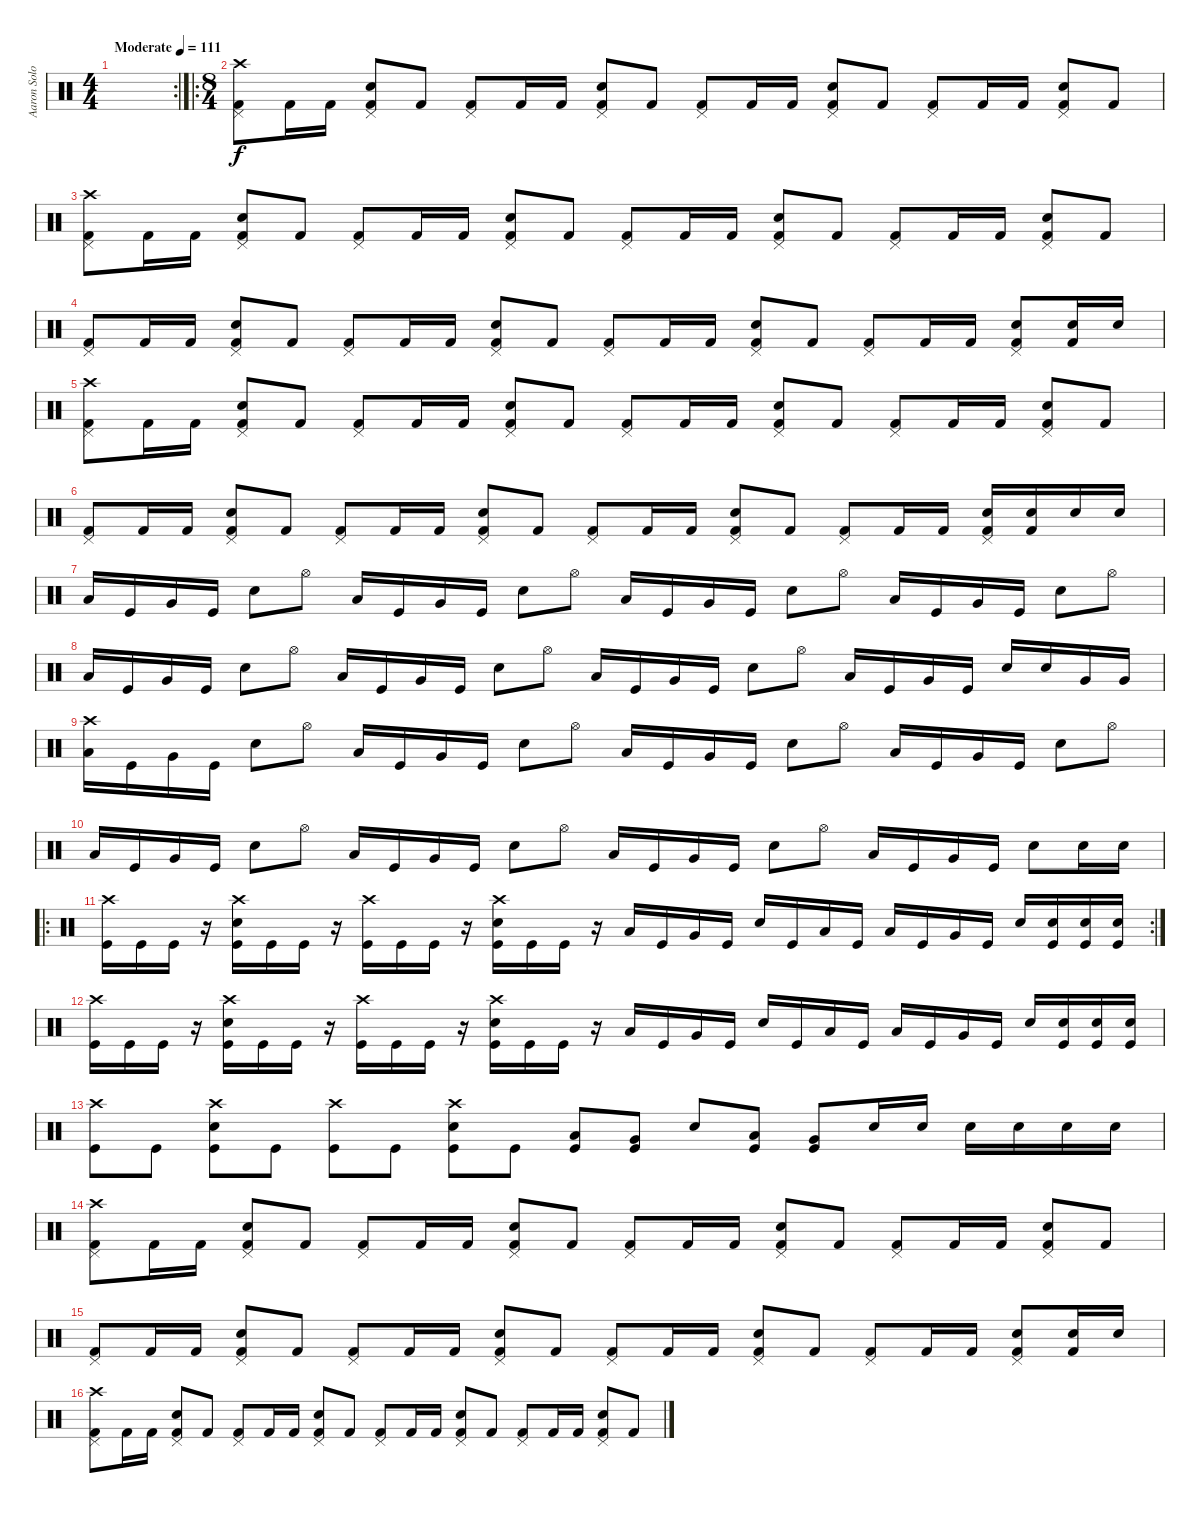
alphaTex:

\track ("Aaron Solowoniuk(Drums)" "Aaron Solo") {instrument percussion}
\staff {score}
\articulation defaults
\rc 2
\ts (4 4)
\tempo (111 "Moderate")
\clef neutral
\ks c
|
\ro
\ts (8 4)
("Crash high (hit)" "Pedal Hi-Hat (hit)" "Kick (hit) 2").8 "Kick (hit) 2".16 "Kick (hit) 2".16 ("Pedal Hi-Hat (hit)" "Electric Snare (hit)" "Kick (hit) 2").8 "Kick (hit) 2".8 ("Pedal Hi-Hat (hit)" "Kick (hit) 2").8 "Kick (hit) 2".16 "Kick (hit) 2".16 ("Pedal Hi-Hat (hit)" "Electric Snare (hit)" "Kick (hit) 2").8 "Kick (hit) 2".8 ("Pedal Hi-Hat (hit)" "Kick (hit) 2").8 "Kick (hit) 2".16 "Kick (hit) 2".16 ("Pedal Hi-Hat (hit)" "Electric Snare (hit)" "Kick (hit) 2").8 "Kick (hit) 2".8 ("Pedal Hi-Hat (hit)" "Kick (hit) 2").8 "Kick (hit) 2".16 "Kick (hit) 2".16 ("Pedal Hi-Hat (hit)" "Electric Snare (hit)" "Kick (hit) 2").8 "Kick (hit) 2".8 |
("Crash high (hit)" "Pedal Hi-Hat (hit)" "Kick (hit) 2").8 "Kick (hit) 2".16 "Kick (hit) 2".16 ("Pedal Hi-Hat (hit)" "Electric Snare (hit)" "Kick (hit) 2").8 "Kick (hit) 2".8 ("Pedal Hi-Hat (hit)" "Kick (hit) 2").8 "Kick (hit) 2".16 "Kick (hit) 2".16 ("Pedal Hi-Hat (hit)" "Electric Snare (hit)" "Kick (hit) 2").8 "Kick (hit) 2".8 ("Pedal Hi-Hat (hit)" "Kick (hit) 2").8 "Kick (hit) 2".16 "Kick (hit) 2".16 ("Pedal Hi-Hat (hit)" "Electric Snare (hit)" "Kick (hit) 2").8 "Kick (hit) 2".8 ("Pedal Hi-Hat (hit)" "Kick (hit) 2").8 "Kick (hit) 2".16 "Kick (hit) 2".16 ("Pedal Hi-Hat (hit)" "Electric Snare (hit)" "Kick (hit) 2").8 "Kick (hit) 2".8 |
("Pedal Hi-Hat (hit)" "Kick (hit) 2").8 "Kick (hit) 2".16 "Kick (hit) 2".16 ("Pedal Hi-Hat (hit)" "Electric Snare (hit)" "Kick (hit) 2").8 "Kick (hit) 2".8 ("Pedal Hi-Hat (hit)" "Kick (hit) 2").8 "Kick (hit) 2".16 "Kick (hit) 2".16 ("Pedal Hi-Hat (hit)" "Electric Snare (hit)" "Kick (hit) 2").8 "Kick (hit) 2".8 ("Pedal Hi-Hat (hit)" "Kick (hit) 2").8 "Kick (hit) 2".16 "Kick (hit) 2".16 ("Pedal Hi-Hat (hit)" "Electric Snare (hit)" "Kick (hit) 2").8 "Kick (hit) 2".8 ("Pedal Hi-Hat (hit)" "Kick (hit) 2").8 "Kick (hit) 2".16 "Kick (hit) 2".16 ("Pedal Hi-Hat (hit)" "Electric Snare (hit)" "Kick (hit) 2").8 ("Electric Snare (hit)" "Kick (hit) 2").16 "Electric Snare (hit)".16 |
("Crash high (hit)" "Pedal Hi-Hat (hit)" "Kick (hit) 2").8 "Kick (hit) 2".16 "Kick (hit) 2".16 ("Pedal Hi-Hat (hit)" "Electric Snare (hit)" "Kick (hit) 2").8 "Kick (hit) 2".8 ("Pedal Hi-Hat (hit)" "Kick (hit) 2").8 "Kick (hit) 2".16 "Kick (hit) 2".16 ("Pedal Hi-Hat (hit)" "Electric Snare (hit)" "Kick (hit) 2").8 "Kick (hit) 2".8 ("Pedal Hi-Hat (hit)" "Kick (hit) 2").8 "Kick (hit) 2".16 "Kick (hit) 2".16 ("Pedal Hi-Hat (hit)" "Electric Snare (hit)" "Kick (hit) 2").8 "Kick (hit) 2".8 ("Pedal Hi-Hat (hit)" "Kick (hit) 2").8 "Kick (hit) 2".16 "Kick (hit) 2".16 ("Pedal Hi-Hat (hit)" "Electric Snare (hit)" "Kick (hit) 2").8 "Kick (hit) 2".8 |
("Pedal Hi-Hat (hit)" "Kick (hit) 2").8 "Kick (hit) 2".16 "Kick (hit) 2".16 ("Pedal Hi-Hat (hit)" "Electric Snare (hit)" "Kick (hit) 2").8 "Kick (hit) 2".8 ("Pedal Hi-Hat (hit)" "Kick (hit) 2").8 "Kick (hit) 2".16 "Kick (hit) 2".16 ("Pedal Hi-Hat (hit)" "Electric Snare (hit)" "Kick (hit) 2").8 "Kick (hit) 2".8 ("Pedal Hi-Hat (hit)" "Kick (hit) 2").8 "Kick (hit) 2".16 "Kick (hit) 2".16 ("Pedal Hi-Hat (hit)" "Electric Snare (hit)" "Kick (hit) 2").8 "Kick (hit) 2".8 ("Pedal Hi-Hat (hit)" "Kick (hit) 2").8 "Kick (hit) 2".16 "Kick (hit) 2".16 ("Pedal Hi-Hat (hit)" "Electric Snare (hit)" "Kick (hit) 2").16 ("Electric Snare (hit)" "Kick (hit) 2").16 "Electric Snare (hit)".16 "Electric Snare (hit)".16 |
"Low Floor Tom (hit)".16 "Kick (hit)".16 "Very Low Tom (hit)".16 "Kick (hit)".16 "Electric Snare (hit)".8 "Hi-Hat (open)".8 "Low Floor Tom (hit)".16 "Kick (hit)".16 "Very Low Tom (hit)".16 "Kick (hit)".16 "Electric Snare (hit)".8 "Hi-Hat (open)".8 "Low Floor Tom (hit)".16 "Kick (hit)".16 "Very Low Tom (hit)".16 "Kick (hit)".16 "Electric Snare (hit)".8 "Hi-Hat (open)".8 "Low Floor Tom (hit)".16 "Kick (hit)".16 "Very Low Tom (hit)".16 "Kick (hit)".16 "Electric Snare (hit)".8 "Hi-Hat (open)".8 |
"Low Floor Tom (hit)".16 "Kick (hit)".16 "Very Low Tom (hit)".16 "Kick (hit)".16 "Electric Snare (hit)".8 "Hi-Hat (open)".8 "Low Floor Tom (hit)".16 "Kick (hit)".16 "Very Low Tom (hit)".16 "Kick (hit)".16 "Electric Snare (hit)".8 "Hi-Hat (open)".8 "Low Floor Tom (hit)".16 "Kick (hit)".16 "Very Low Tom (hit)".16 "Kick (hit)".16 "Electric Snare (hit)".8 "Hi-Hat (open)".8 "Low Floor Tom (hit)".16 "Kick (hit)".16 "Very Low Tom (hit)".16 "Kick (hit)".16 "Electric Snare (hit)".16 "Electric Snare (hit)".16 "Very Low Tom (hit)".16 "Very Low Tom (hit)".16 |
("Crash high (hit)" "Low Floor Tom (hit)").16 "Kick (hit)".16 "Very Low Tom (hit)".16 "Kick (hit)".16 "Electric Snare (hit)".8 "Hi-Hat (open)".8 "Low Floor Tom (hit)".16 "Kick (hit)".16 "Very Low Tom (hit)".16 "Kick (hit)".16 "Electric Snare (hit)".8 "Hi-Hat (open)".8 "Low Floor Tom (hit)".16 "Kick (hit)".16 "Very Low Tom (hit)".16 "Kick (hit)".16 "Electric Snare (hit)".8 "Hi-Hat (open)".8 "Low Floor Tom (hit)".16 "Kick (hit)".16 "Very Low Tom (hit)".16 "Kick (hit)".16 "Electric Snare (hit)".8 "Hi-Hat (open)".8 |
"Low Floor Tom (hit)".16 "Kick (hit)".16 "Very Low Tom (hit)".16 "Kick (hit)".16 "Electric Snare (hit)".8 "Hi-Hat (open)".8 "Low Floor Tom (hit)".16 "Kick (hit)".16 "Very Low Tom (hit)".16 "Kick (hit)".16 "Electric Snare (hit)".8 "Hi-Hat (open)".8 "Low Floor Tom (hit)".16 "Kick (hit)".16 "Very Low Tom (hit)".16 "Kick (hit)".16 "Electric Snare (hit)".8 "Hi-Hat (open)".8 "Low Floor Tom (hit)".16 "Kick (hit)".16 "Very Low Tom (hit)".16 "Kick (hit)".16 "Electric Snare (hit)".8 "Electric Snare (hit)".16 "Electric Snare (hit)".16 |
\ro
\rc 2
("Crash high (hit)" "Kick (hit)").16 "Kick (hit)".16 "Kick (hit)".16 r.16 ("Crash high (hit)" "Kick (hit)" "Electric Snare (hit)").16 "Kick (hit)".16 "Kick (hit)".16 r.16 ("Crash high (hit)" "Kick (hit)").16 "Kick (hit)".16 "Kick (hit)".16 r.16 ("Crash high (hit)" "Kick (hit)" "Electric Snare (hit)").16 "Kick (hit)".16 "Kick (hit)".16 r.16 "Low Floor Tom (hit)".16 "Kick (hit)".16 "Very Low Tom (hit)".16 "Kick (hit)".16 "Electric Snare (hit)".16 "Kick (hit)".16 "Low Floor Tom (hit)".16 "Kick (hit)".16 "Low Floor Tom (hit)".16 "Kick (hit)".16 "Very Low Tom (hit)".16 "Kick (hit)".16 "Electric Snare (hit)".16 ("Kick (hit)" "Electric Snare (hit)").16 ("Kick (hit)" "Electric Snare (hit)").16 ("Kick (hit)" "Electric Snare (hit)").16 |
("Crash high (hit)" "Kick (hit)").16 "Kick (hit)".16 "Kick (hit)".16 r.16 ("Crash high (hit)" "Kick (hit)" "Electric Snare (hit)").16 "Kick (hit)".16 "Kick (hit)".16 r.16 ("Crash high (hit)" "Kick (hit)").16 "Kick (hit)".16 "Kick (hit)".16 r.16 ("Crash high (hit)" "Kick (hit)" "Electric Snare (hit)").16 "Kick (hit)".16 "Kick (hit)".16 r.16 "Low Floor Tom (hit)".16 "Kick (hit)".16 "Very Low Tom (hit)".16 "Kick (hit)".16 "Electric Snare (hit)".16 "Kick (hit)".16 "Low Floor Tom (hit)".16 "Kick (hit)".16 "Low Floor Tom (hit)".16 "Kick (hit)".16 "Very Low Tom (hit)".16 "Kick (hit)".16 "Electric Snare (hit)".16 ("Kick (hit)" "Electric Snare (hit)").16 ("Kick (hit)" "Electric Snare (hit)").16 ("Kick (hit)" "Electric Snare (hit)").16 |
("Crash high (hit)" "Kick (hit)").8 "Kick (hit)".8 ("Electric Snare (hit)" "Crash high (hit)" "Kick (hit)").8 "Kick (hit)".8 ("Crash high (hit)" "Kick (hit)").8 "Kick (hit)".8 ("Electric Snare (hit)" "Crash high (hit)" "Kick (hit)").8 "Kick (hit)".8 ("Low Floor Tom (hit)" "Kick (hit)").8 ("Very Low Tom (hit)" "Kick (hit)").8 "Electric Snare (hit)".8 ("Low Floor Tom (hit)" "Kick (hit)").8 ("Very Low Tom (hit)" "Kick (hit)").8 "Electric Snare (hit)".16 "Electric Snare (hit)".16 "Electric Snare (hit)".16 "Electric Snare (hit)".16 "Electric Snare (hit)".16 "Electric Snare (hit)".16 |
("Crash high (hit)" "Pedal Hi-Hat (hit)" "Kick (hit) 2").8 "Kick (hit) 2".16 "Kick (hit) 2".16 ("Pedal Hi-Hat (hit)" "Electric Snare (hit)" "Kick (hit) 2").8 "Kick (hit) 2".8 ("Pedal Hi-Hat (hit)" "Kick (hit) 2").8 "Kick (hit) 2".16 "Kick (hit) 2".16 ("Pedal Hi-Hat (hit)" "Electric Snare (hit)" "Kick (hit) 2").8 "Kick (hit) 2".8 ("Pedal Hi-Hat (hit)" "Kick (hit) 2").8 "Kick (hit) 2".16 "Kick (hit) 2".16 ("Pedal Hi-Hat (hit)" "Electric Snare (hit)" "Kick (hit) 2").8 "Kick (hit) 2".8 ("Pedal Hi-Hat (hit)" "Kick (hit) 2").8 "Kick (hit) 2".16 "Kick (hit) 2".16 ("Pedal Hi-Hat (hit)" "Electric Snare (hit)" "Kick (hit) 2").8 "Kick (hit) 2".8 |
("Pedal Hi-Hat (hit)" "Kick (hit) 2").8 "Kick (hit) 2".16 "Kick (hit) 2".16 ("Pedal Hi-Hat (hit)" "Electric Snare (hit)" "Kick (hit) 2").8 "Kick (hit) 2".8 ("Pedal Hi-Hat (hit)" "Kick (hit) 2").8 "Kick (hit) 2".16 "Kick (hit) 2".16 ("Pedal Hi-Hat (hit)" "Electric Snare (hit)" "Kick (hit) 2").8 "Kick (hit) 2".8 ("Pedal Hi-Hat (hit)" "Kick (hit) 2").8 "Kick (hit) 2".16 "Kick (hit) 2".16 ("Pedal Hi-Hat (hit)" "Electric Snare (hit)" "Kick (hit) 2").8 "Kick (hit) 2".8 ("Pedal Hi-Hat (hit)" "Kick (hit) 2").8 "Kick (hit) 2".16 "Kick (hit) 2".16 ("Pedal Hi-Hat (hit)" "Electric Snare (hit)" "Kick (hit) 2").8 ("Electric Snare (hit)" "Kick (hit) 2").16 "Electric Snare (hit)".16 |
("Crash high (hit)" "Pedal Hi-Hat (hit)" "Kick (hit) 2").8 "Kick (hit) 2".16 "Kick (hit) 2".16 ("Pedal Hi-Hat (hit)" "Electric Snare (hit)" "Kick (hit) 2").8 "Kick (hit) 2".8 ("Pedal Hi-Hat (hit)" "Kick (hit) 2").8 "Kick (hit) 2".16 "Kick (hit) 2".16 ("Pedal Hi-Hat (hit)" "Electric Snare (hit)" "Kick (hit) 2").8 "Kick (hit) 2".8 ("Pedal Hi-Hat (hit)" "Kick (hit) 2").8 "Kick (hit) 2".16 "Kick (hit) 2".16 ("Pedal Hi-Hat (hit)" "Electric Snare (hit)" "Kick (hit) 2").8 "Kick (hit) 2".8 ("Pedal Hi-Hat (hit)" "Kick (hit) 2").8 "Kick (hit) 2".16 "Kick (hit) 2".16 ("Pedal Hi-Hat (hit)" "Electric Snare (hit)" "Kick (hit) 2").8 "Kick (hit) 2".8
